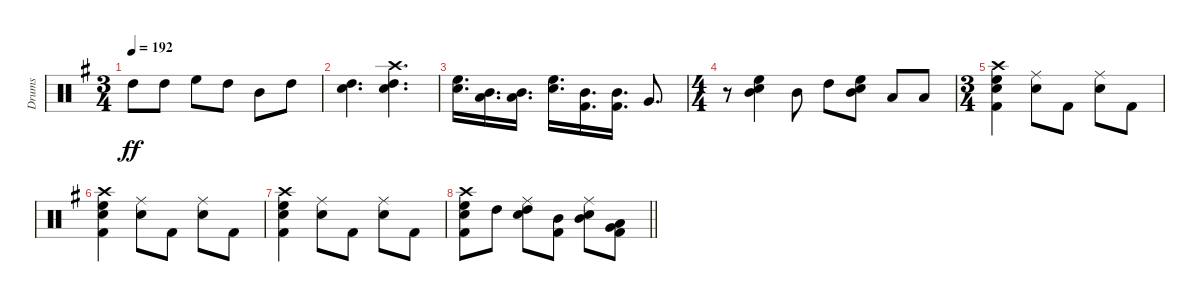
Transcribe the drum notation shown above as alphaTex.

\track ("Drums" "Drums") {instrument percussion}
\staff {score}
\articulation defaults
\ts (3 4)
\tempo 192
\clef neutral
\ks g "High Tom (hit)".8{dy ff} "High Tom (hit)".8 "High Floor Tom (hit)".8 "High Tom (hit)".8 "Mid Tom (hit)".8 "High Tom (hit)".8
|
("Electric Snare (hit)" "High Tom (hit)").4{d} ("Electric Snare (hit)" "High Tom (hit)" "Crash high (hit)").4{d} |
("High Floor Tom (hit)" "Electric Snare (hit)").16{d} ("Mid Tom (hit)" "Low Tom (hit)").16{d} ("Mid Tom (hit)" "Low Tom (hit)").16{d} ("High Floor Tom (hit)" "Electric Snare (hit)").16{d} ("Kick (hit) 2" "Mid Tom (hit)").16{d} ("Kick (hit) 2" "Mid Tom (hit)").16{d} "Very Low Tom (hit)".8{d} |
\ts (4 4)
r.8 ("Mid Tom (hit)" "High Floor Tom (hit)" "Electric Snare (hit)").4 "Mid Tom (hit)".8 "High Tom (hit)".8 ("Mid Tom (hit)" "High Floor Tom (hit)" "Electric Snare (hit)").8 "Low Tom (hit)".8 "Low Tom (hit)".8 |
\ts (3 4)
("Kick (hit) 2" "Crash high (hit)" "High Floor Tom (hit)" "Electric Snare (hit)").4 ("Ride (middle)" "Electric Snare (hit)").8 "Kick (hit) 2".8 ("Ride (middle)" "Electric Snare (hit)").8 "Kick (hit) 2".8 |
("Kick (hit) 2" "Crash high (hit)" "High Floor Tom (hit)" "Electric Snare (hit)").4 ("Ride (middle)" "Electric Snare (hit)").8 "Kick (hit) 2".8 ("Ride (middle)" "Electric Snare (hit)").8 "Kick (hit) 2".8 |
("Kick (hit) 2" "Crash high (hit)" "High Floor Tom (hit)" "Electric Snare (hit)").4 ("Ride (middle)" "Electric Snare (hit)").8 "Kick (hit) 2".8 ("Ride (middle)" "Electric Snare (hit)").8 "Kick (hit) 2".8 |
\barLineRight lightlight
("Kick (hit) 2" "Crash high (hit)" "High Floor Tom (hit)" "Electric Snare (hit)").8 "High Tom (hit)".8 ("High Tom (hit)" "Ride (middle)" "Electric Snare (hit)").8 ("Mid Tom (hit)" "Kick (hit) 2").8 ("Mid Tom (hit)" "Ride (middle)" "Electric Snare (hit)").8 ("Very Low Tom (hit)" "Low Tom (hit)" "Kick (hit) 2").8
